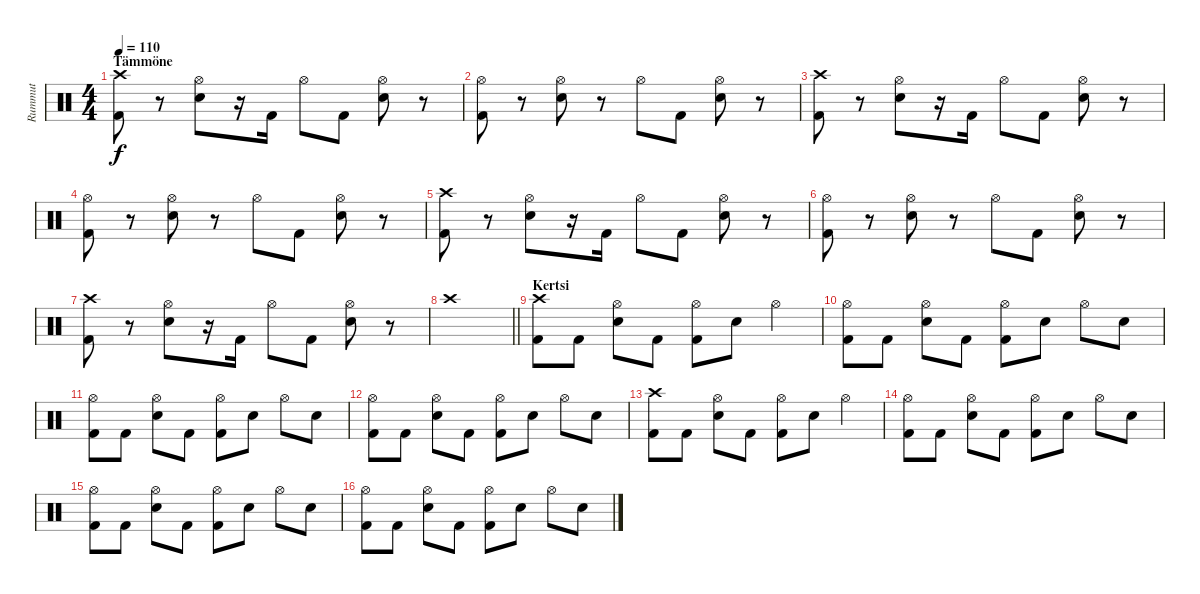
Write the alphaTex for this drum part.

\track ("Rummut" "Rummut") {instrument percussion}
\staff {score}
\articulation defaults
\ts (4 4)
\section ("" "Tämmöne")
\tempo 110
\clef neutral
\ks c
("Crash high (hit)" "Kick (hit) 2").8{dy f} r.8 ("Hi-Hat (open)" "Snare (hit) 2").8 r.16 "Kick (hit) 2".16 "Hi-Hat (open)".8 "Kick (hit) 2".8 ("Hi-Hat (open)" "Snare (hit) 2").8 r.8 |
("Hi-Hat (open)" "Kick (hit) 2").8 r.8 ("Hi-Hat (open)" "Snare (hit) 2").8 r.8 "Hi-Hat (open)".8 "Kick (hit) 2".8 ("Hi-Hat (open)" "Snare (hit) 2").8 r.8 |
("Crash high (hit)" "Kick (hit) 2").8 r.8 ("Hi-Hat (open)" "Snare (hit) 2").8 r.16 "Kick (hit) 2".16 "Hi-Hat (open)".8 "Kick (hit) 2".8 ("Hi-Hat (open)" "Snare (hit) 2").8 r.8 |
("Hi-Hat (open)" "Kick (hit) 2").8 r.8 ("Hi-Hat (open)" "Snare (hit) 2").8 r.8 "Hi-Hat (open)".8 "Kick (hit) 2".8 ("Hi-Hat (open)" "Snare (hit) 2").8 r.8 |
("Crash high (hit)" "Kick (hit) 2").8 r.8 ("Hi-Hat (open)" "Snare (hit) 2").8 r.16 "Kick (hit) 2".16 "Hi-Hat (open)".8 "Kick (hit) 2".8 ("Hi-Hat (open)" "Snare (hit) 2").8 r.8 |
("Hi-Hat (open)" "Kick (hit) 2").8 r.8 ("Hi-Hat (open)" "Snare (hit) 2").8 r.8 "Hi-Hat (open)".8 "Kick (hit) 2".8 ("Hi-Hat (open)" "Snare (hit) 2").8 r.8 |
("Crash high (hit)" "Kick (hit) 2").8 r.8 ("Hi-Hat (open)" "Snare (hit) 2").8 r.16 "Kick (hit) 2".16 "Hi-Hat (open)".8 "Kick (hit) 2".8 ("Hi-Hat (open)" "Snare (hit) 2").8 r.8 |
\barLineRight lightlight "Crash high (hit)".1
|
\section ("" "Kertsi")
("Crash high (hit)" "Kick (hit) 2").8 "Kick (hit) 2".8 ("Hi-Hat (open)" "Snare (hit) 2").8 "Kick (hit) 2".8 ("Hi-Hat (open)" "Kick (hit) 2").8 "Snare (hit) 2".8 "Hi-Hat (open)".4 |
("Hi-Hat (open)" "Kick (hit) 2").8 "Kick (hit) 2".8 ("Hi-Hat (open)" "Snare (hit) 2").8 "Kick (hit) 2".8 ("Hi-Hat (open)" "Kick (hit) 2").8 "Snare (hit) 2".8 "Hi-Hat (open)".8 "Snare (hit) 2".8 |
("Hi-Hat (open)" "Kick (hit) 2").8 "Kick (hit) 2".8 ("Hi-Hat (open)" "Snare (hit) 2").8 "Kick (hit) 2".8 ("Hi-Hat (open)" "Kick (hit) 2").8 "Snare (hit) 2".8 "Hi-Hat (open)".8 "Snare (hit) 2".8 |
("Hi-Hat (open)" "Kick (hit) 2").8 "Kick (hit) 2".8 ("Hi-Hat (open)" "Snare (hit) 2").8 "Kick (hit) 2".8 ("Hi-Hat (open)" "Kick (hit) 2").8 "Snare (hit) 2".8 "Hi-Hat (open)".8 "Snare (hit) 2".8 |
("Crash high (hit)" "Kick (hit) 2").8 "Kick (hit) 2".8 ("Hi-Hat (open)" "Snare (hit) 2").8 "Kick (hit) 2".8 ("Hi-Hat (open)" "Kick (hit) 2").8 "Snare (hit) 2".8 "Hi-Hat (open)".4 |
("Hi-Hat (open)" "Kick (hit) 2").8 "Kick (hit) 2".8 ("Hi-Hat (open)" "Snare (hit) 2").8 "Kick (hit) 2".8 ("Hi-Hat (open)" "Kick (hit) 2").8 "Snare (hit) 2".8 "Hi-Hat (open)".8 "Snare (hit) 2".8 |
("Hi-Hat (open)" "Kick (hit) 2").8 "Kick (hit) 2".8 ("Hi-Hat (open)" "Snare (hit) 2").8 "Kick (hit) 2".8 ("Hi-Hat (open)" "Kick (hit) 2").8 "Snare (hit) 2".8 "Hi-Hat (open)".8 "Snare (hit) 2".8 |
("Hi-Hat (open)" "Kick (hit) 2").8 "Kick (hit) 2".8 ("Hi-Hat (open)" "Snare (hit) 2").8 "Kick (hit) 2".8 ("Hi-Hat (open)" "Kick (hit) 2").8 "Snare (hit) 2".8 "Hi-Hat (open)".8 "Snare (hit) 2".8
